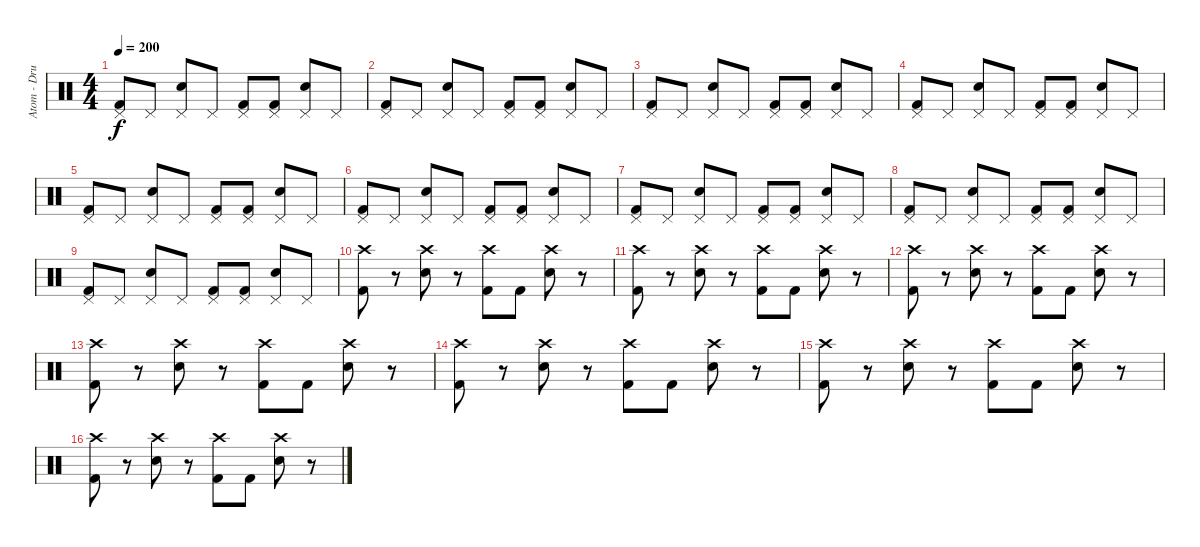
\track ("Atom - Drums" "Atom - Dru") {instrument percussion}
\staff {score}
\articulation defaults
\ts (4 4)
\tempo 200
\clef neutral
\ks c
("Pedal Hi-Hat (hit)" "Kick (hit) 2").8{dy f} "Pedal Hi-Hat (hit)".8 ("Pedal Hi-Hat (hit)" "Electric Snare (hit)").8 "Pedal Hi-Hat (hit)".8 ("Pedal Hi-Hat (hit)" "Kick (hit) 2").8 ("Pedal Hi-Hat (hit)" "Kick (hit) 2").8 ("Pedal Hi-Hat (hit)" "Electric Snare (hit)").8 "Pedal Hi-Hat (hit)".8 |
("Pedal Hi-Hat (hit)" "Kick (hit) 2").8 "Pedal Hi-Hat (hit)".8 ("Pedal Hi-Hat (hit)" "Electric Snare (hit)").8 "Pedal Hi-Hat (hit)".8 ("Pedal Hi-Hat (hit)" "Kick (hit) 2").8 ("Pedal Hi-Hat (hit)" "Kick (hit) 2").8 ("Pedal Hi-Hat (hit)" "Electric Snare (hit)").8 "Pedal Hi-Hat (hit)".8 |
("Pedal Hi-Hat (hit)" "Kick (hit) 2").8 "Pedal Hi-Hat (hit)".8 ("Pedal Hi-Hat (hit)" "Electric Snare (hit)").8 "Pedal Hi-Hat (hit)".8 ("Pedal Hi-Hat (hit)" "Kick (hit) 2").8 ("Pedal Hi-Hat (hit)" "Kick (hit) 2").8 ("Pedal Hi-Hat (hit)" "Electric Snare (hit)").8 "Pedal Hi-Hat (hit)".8 |
("Pedal Hi-Hat (hit)" "Kick (hit) 2").8 "Pedal Hi-Hat (hit)".8 ("Pedal Hi-Hat (hit)" "Electric Snare (hit)").8 "Pedal Hi-Hat (hit)".8 ("Pedal Hi-Hat (hit)" "Kick (hit) 2").8 ("Pedal Hi-Hat (hit)" "Kick (hit) 2").8 ("Pedal Hi-Hat (hit)" "Electric Snare (hit)").8 "Pedal Hi-Hat (hit)".8 |
("Pedal Hi-Hat (hit)" "Kick (hit) 2").8 "Pedal Hi-Hat (hit)".8 ("Pedal Hi-Hat (hit)" "Electric Snare (hit)").8 "Pedal Hi-Hat (hit)".8 ("Pedal Hi-Hat (hit)" "Kick (hit) 2").8 ("Pedal Hi-Hat (hit)" "Kick (hit) 2").8 ("Pedal Hi-Hat (hit)" "Electric Snare (hit)").8 "Pedal Hi-Hat (hit)".8 |
("Pedal Hi-Hat (hit)" "Kick (hit) 2").8 "Pedal Hi-Hat (hit)".8 ("Pedal Hi-Hat (hit)" "Electric Snare (hit)").8 "Pedal Hi-Hat (hit)".8 ("Pedal Hi-Hat (hit)" "Kick (hit) 2").8 ("Pedal Hi-Hat (hit)" "Kick (hit) 2").8 ("Pedal Hi-Hat (hit)" "Electric Snare (hit)").8 "Pedal Hi-Hat (hit)".8 |
("Pedal Hi-Hat (hit)" "Kick (hit) 2").8 "Pedal Hi-Hat (hit)".8 ("Pedal Hi-Hat (hit)" "Electric Snare (hit)").8 "Pedal Hi-Hat (hit)".8 ("Pedal Hi-Hat (hit)" "Kick (hit) 2").8 ("Pedal Hi-Hat (hit)" "Kick (hit) 2").8 ("Pedal Hi-Hat (hit)" "Electric Snare (hit)").8 "Pedal Hi-Hat (hit)".8 |
("Pedal Hi-Hat (hit)" "Kick (hit) 2").8 "Pedal Hi-Hat (hit)".8 ("Pedal Hi-Hat (hit)" "Electric Snare (hit)").8 "Pedal Hi-Hat (hit)".8 ("Pedal Hi-Hat (hit)" "Kick (hit) 2").8 ("Pedal Hi-Hat (hit)" "Kick (hit) 2").8 ("Pedal Hi-Hat (hit)" "Electric Snare (hit)").8 "Pedal Hi-Hat (hit)".8 |
("Pedal Hi-Hat (hit)" "Kick (hit) 2").8 "Pedal Hi-Hat (hit)".8 ("Pedal Hi-Hat (hit)" "Electric Snare (hit)").8 "Pedal Hi-Hat (hit)".8 ("Pedal Hi-Hat (hit)" "Kick (hit) 2").8 ("Pedal Hi-Hat (hit)" "Kick (hit) 2").8 ("Pedal Hi-Hat (hit)" "Electric Snare (hit)").8 "Pedal Hi-Hat (hit)".8 |
("Crash high (hit)" "Kick (hit) 2").8 r.8 ("Crash high (hit)" "Electric Snare (hit)").8 r.8 ("Crash high (hit)" "Kick (hit) 2").8 "Kick (hit) 2".8 ("Crash high (hit)" "Electric Snare (hit)").8 r.8 |
("Crash high (hit)" "Kick (hit) 2").8 r.8 ("Crash high (hit)" "Electric Snare (hit)").8 r.8 ("Crash high (hit)" "Kick (hit) 2").8 "Kick (hit) 2".8 ("Crash high (hit)" "Electric Snare (hit)").8 r.8 |
("Crash high (hit)" "Kick (hit) 2").8 r.8 ("Crash high (hit)" "Electric Snare (hit)").8 r.8 ("Crash high (hit)" "Kick (hit) 2").8 "Kick (hit) 2".8 ("Crash high (hit)" "Electric Snare (hit)").8 r.8 |
("Crash high (hit)" "Kick (hit) 2").8 r.8 ("Crash high (hit)" "Electric Snare (hit)").8 r.8 ("Crash high (hit)" "Kick (hit) 2").8 "Kick (hit) 2".8 ("Crash high (hit)" "Electric Snare (hit)").8 r.8 |
("Crash high (hit)" "Kick (hit) 2").8 r.8 ("Crash high (hit)" "Electric Snare (hit)").8 r.8 ("Crash high (hit)" "Kick (hit) 2").8 "Kick (hit) 2".8 ("Crash high (hit)" "Electric Snare (hit)").8 r.8 |
("Crash high (hit)" "Kick (hit) 2").8 r.8 ("Crash high (hit)" "Electric Snare (hit)").8 r.8 ("Crash high (hit)" "Kick (hit) 2").8 "Kick (hit) 2".8 ("Crash high (hit)" "Electric Snare (hit)").8 r.8 |
("Crash high (hit)" "Kick (hit) 2").8 r.8 ("Crash high (hit)" "Electric Snare (hit)").8 r.8 ("Crash high (hit)" "Kick (hit) 2").8 "Kick (hit) 2".8 ("Crash high (hit)" "Electric Snare (hit)").8 r.8
